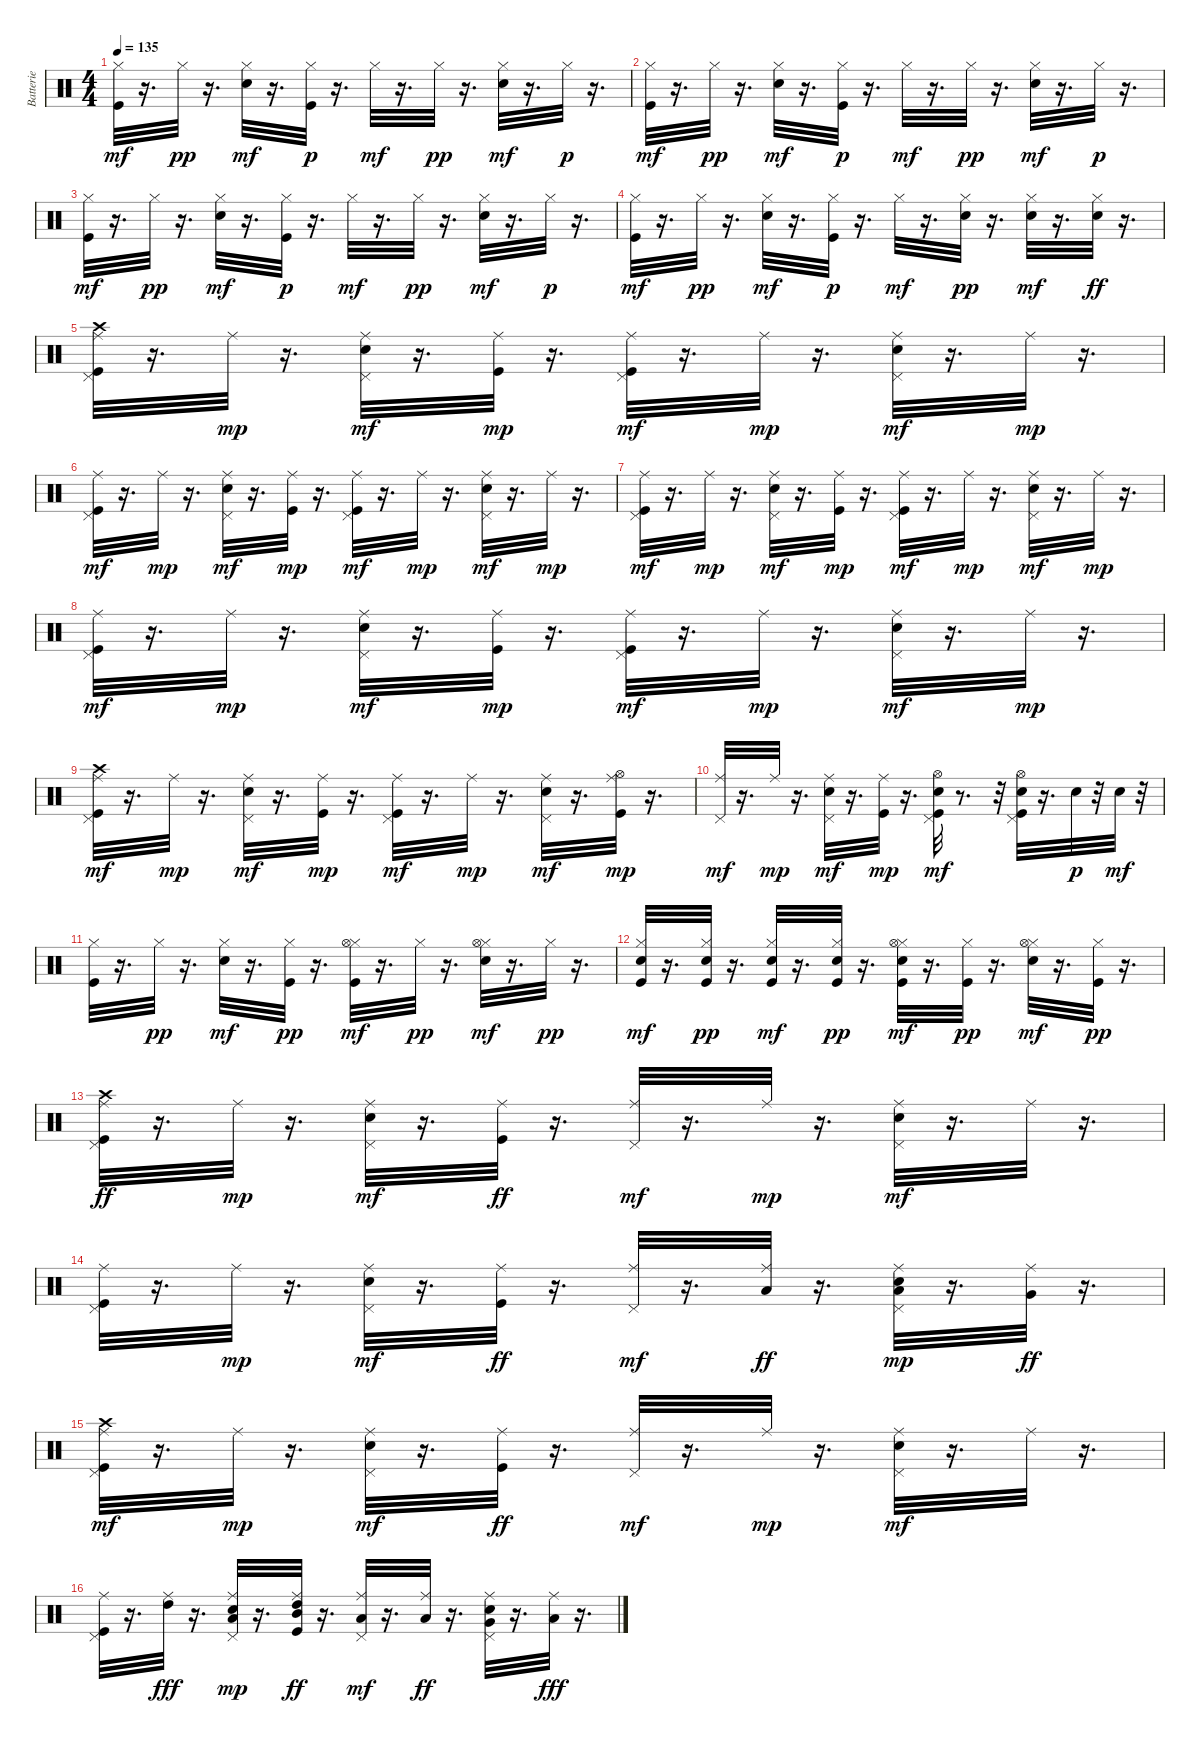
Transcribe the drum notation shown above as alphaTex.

\track ("Batterie" "Batterie") {instrument percussion}
\staff {score}
\articulation defaults
\ts (4 4)
\tempo 135
\clef neutral
\ks c
("Kick (hit)" "Hi-Hat (closed)").32{dy mf} r.16{d} "Hi-Hat (closed)".32{dy pp} r.16{d} ("Electric Snare (hit)" "Hi-Hat (closed)").32{dy mf} r.16{d} ("Kick (hit)" "Hi-Hat (closed)").32{dy p} r.16{d} "Hi-Hat (closed)".32{dy mf} r.16{d} "Hi-Hat (closed)".32{dy pp} r.16{d} ("Electric Snare (hit)" "Hi-Hat (closed)").32{dy mf} r.16{d} "Hi-Hat (closed)".32{dy p} r.16{d} |
("Kick (hit)" "Hi-Hat (closed)").32{dy mf} r.16{d} "Hi-Hat (closed)".32{dy pp} r.16{d} ("Electric Snare (hit)" "Hi-Hat (closed)").32{dy mf} r.16{d} ("Kick (hit)" "Hi-Hat (closed)").32{dy p} r.16{d} "Hi-Hat (closed)".32{dy mf} r.16{d} "Hi-Hat (closed)".32{dy pp} r.16{d} ("Electric Snare (hit)" "Hi-Hat (closed)").32{dy mf} r.16{d} "Hi-Hat (closed)".32{dy p} r.16{d} |
("Kick (hit)" "Hi-Hat (closed)").32{dy mf} r.16{d} "Hi-Hat (closed)".32{dy pp} r.16{d} ("Electric Snare (hit)" "Hi-Hat (closed)").32{dy mf} r.16{d} ("Kick (hit)" "Hi-Hat (closed)").32{dy p} r.16{d} "Hi-Hat (closed)".32{dy mf} r.16{d} "Hi-Hat (closed)".32{dy pp} r.16{d} ("Electric Snare (hit)" "Hi-Hat (closed)").32{dy mf} r.16{d} "Hi-Hat (closed)".32{dy p} r.16{d} |
("Kick (hit)" "Hi-Hat (closed)").32{dy mf} r.16{d} "Hi-Hat (closed)".32{dy pp} r.16{d} ("Electric Snare (hit)" "Hi-Hat (closed)").32{dy mf} r.16{d} ("Kick (hit)" "Hi-Hat (closed)").32{dy p} r.16{d} "Hi-Hat (closed)".32{dy mf} r.16{d} ("Hi-Hat (closed)" "Electric Snare (hit)").32{dy pp} r.16{d} ("Electric Snare (hit)" "Hi-Hat (closed)").32{dy mf} r.16{d} ("Hi-Hat (closed)" "Electric Snare (hit)").32{dy ff} r.16{d} |
("Kick (hit)" "Pedal Hi-Hat (hit)" "Ride (middle)" "Crash high (hit)").32 r.16{d} "Ride (middle)".32{dy mp} r.16{d} ("Electric Snare (hit)" "Pedal Hi-Hat (hit)" "Ride (middle)").32{dy mf} r.16{d} ("Kick (hit)" "Ride (middle)").32{dy mp} r.16{d} ("Kick (hit)" "Pedal Hi-Hat (hit)" "Ride (middle)").32{dy mf} r.16{d} "Ride (middle)".32{dy mp} r.16{d} ("Electric Snare (hit)" "Pedal Hi-Hat (hit)" "Ride (middle)").32{dy mf} r.16{d} "Ride (middle)".32{dy mp} r.16{d} |
("Kick (hit)" "Pedal Hi-Hat (hit)" "Ride (middle)").32{dy mf} r.16{d} "Ride (middle)".32{dy mp} r.16{d} ("Electric Snare (hit)" "Pedal Hi-Hat (hit)" "Ride (middle)").32{dy mf} r.16{d} ("Kick (hit)" "Ride (middle)").32{dy mp} r.16{d} ("Kick (hit)" "Pedal Hi-Hat (hit)" "Ride (middle)").32{dy mf} r.16{d} "Ride (middle)".32{dy mp} r.16{d} ("Electric Snare (hit)" "Pedal Hi-Hat (hit)" "Ride (middle)").32{dy mf} r.16{d} "Ride (middle)".32{dy mp} r.16{d} |
("Kick (hit)" "Pedal Hi-Hat (hit)" "Ride (middle)").32{dy mf} r.16{d} "Ride (middle)".32{dy mp} r.16{d} ("Electric Snare (hit)" "Pedal Hi-Hat (hit)" "Ride (middle)").32{dy mf} r.16{d} ("Kick (hit)" "Ride (middle)").32{dy mp} r.16{d} ("Kick (hit)" "Pedal Hi-Hat (hit)" "Ride (middle)").32{dy mf} r.16{d} "Ride (middle)".32{dy mp} r.16{d} ("Electric Snare (hit)" "Pedal Hi-Hat (hit)" "Ride (middle)").32{dy mf} r.16{d} "Ride (middle)".32{dy mp} r.16{d} |
("Kick (hit)" "Pedal Hi-Hat (hit)" "Ride (middle)").32{dy mf} r.16{d} "Ride (middle)".32{dy mp} r.16{d} ("Electric Snare (hit)" "Pedal Hi-Hat (hit)" "Ride (middle)").32{dy mf} r.16{d} ("Kick (hit)" "Ride (middle)").32{dy mp} r.16{d} ("Kick (hit)" "Pedal Hi-Hat (hit)" "Ride (middle)").32{dy mf} r.16{d} "Ride (middle)".32{dy mp} r.16{d} ("Electric Snare (hit)" "Pedal Hi-Hat (hit)" "Ride (middle)").32{dy mf} r.16{d} "Ride (middle)".32{dy mp} r.16{d} |
("Kick (hit)" "Pedal Hi-Hat (hit)" "Ride (middle)" "Crash high (hit)").32{dy mf} r.16{d} "Ride (middle)".32{dy mp} r.16{d} ("Electric Snare (hit)" "Pedal Hi-Hat (hit)" "Ride (middle)").32{dy mf} r.16{d} ("Kick (hit)" "Ride (middle)").32{dy mp} r.16{d} ("Kick (hit)" "Pedal Hi-Hat (hit)" "Ride (middle)").32{dy mf} r.16{d} "Ride (middle)".32{dy mp} r.16{d} ("Electric Snare (hit)" "Pedal Hi-Hat (hit)" "Ride (middle)").32{dy mf} r.16{d} ("Kick (hit)" "Hi-Hat (open)" "Ride (middle)").32{dy mp} r.16{d} |
("Pedal Hi-Hat (hit)" "Ride (middle)").32{dy mf} r.16{d} "Ride (middle)".32{dy mp} r.16{d} ("Electric Snare (hit)" "Pedal Hi-Hat (hit)" "Ride (middle)").32{dy mf} r.16{d} ("Kick (hit)" "Ride (middle)").32{dy mp} r.16{d} ("Kick (hit)" "Electric Snare (hit)" "Pedal Hi-Hat (hit)" "Hi-Hat (open)").32{dy mf} r.8{d} r.32 ("Kick (hit)" "Electric Snare (hit)" "Pedal Hi-Hat (hit)" "Hi-Hat (open)").32 r.16{d} "Electric Snare (hit)".32{dy p} r.32 "Electric Snare (hit)".32{dy mf} r.32 |
("Kick (hit)" "Hi-Hat (closed)").32 r.16{d} "Hi-Hat (closed)".32{dy pp} r.16{d} ("Electric Snare (hit)" "Hi-Hat (closed)").32{dy mf} r.16{d} ("Kick (hit)" "Hi-Hat (closed)").32{dy pp} r.16{d} ("Kick (hit)" "Hi-Hat (closed)" "Hi-Hat (open)").32{dy mf} r.16{d} "Hi-Hat (closed)".32{dy pp} r.16{d} ("Electric Snare (hit)" "Hi-Hat (closed)" "Hi-Hat (open)").32{dy mf} r.16{d} "Hi-Hat (closed)".32{dy pp} r.16{d} |
("Kick (hit)" "Electric Snare (hit)" "Hi-Hat (closed)").32{dy mf} r.16{d} ("Kick (hit)" "Electric Snare (hit)" "Hi-Hat (closed)").32{dy pp} r.16{d} ("Kick (hit)" "Electric Snare (hit)" "Hi-Hat (closed)").32{dy mf} r.16{d} ("Kick (hit)" "Electric Snare (hit)" "Hi-Hat (closed)").32{dy pp} r.16{d} ("Kick (hit)" "Electric Snare (hit)" "Hi-Hat (closed)" "Hi-Hat (open)").32{dy mf} r.16{d} ("Kick (hit)" "Hi-Hat (closed)").32{dy pp} r.16{d} ("Electric Snare (hit)" "Hi-Hat (closed)" "Hi-Hat (open)").32{dy mf} r.16{d} ("Kick (hit)" "Hi-Hat (closed)").32{dy pp} r.16{d} |
("Kick (hit)" "Pedal Hi-Hat (hit)" "Ride (middle)" "Crash high (hit)").32{dy ff} r.16{d} "Ride (middle)".32{dy mp} r.16{d} ("Electric Snare (hit)" "Pedal Hi-Hat (hit)" "Ride (middle)").32{dy mf} r.16{d} ("Kick (hit)" "Ride (middle)").32{dy ff} r.16{d} ("Pedal Hi-Hat (hit)" "Ride (middle)").32{dy mf} r.16{d} "Ride (middle)".32{dy mp} r.16{d} ("Electric Snare (hit)" "Pedal Hi-Hat (hit)" "Ride (middle)").32{dy mf} r.16{d} "Ride (middle)".32 r.16{d} |
("Kick (hit)" "Pedal Hi-Hat (hit)" "Ride (middle)").32 r.16{d} "Ride (middle)".32{dy mp} r.16{d} ("Electric Snare (hit)" "Pedal Hi-Hat (hit)" "Ride (middle)").32{dy mf} r.16{d} ("Kick (hit)" "Ride (middle)").32{dy ff} r.16{d} ("Pedal Hi-Hat (hit)" "Ride (middle)").32{dy mf} r.16{d} ("Ride (middle)" "Low Tom (hit)").32{dy ff} r.16{d} ("Electric Snare (hit)" "Pedal Hi-Hat (hit)" "Ride (middle)" "Low Tom (hit)").32{dy mp} r.16{d} ("Ride (middle)" "Very Low Tom (hit)").32{dy ff} r.16{d} |
("Kick (hit)" "Pedal Hi-Hat (hit)" "Ride (middle)" "Crash high (hit)").32{dy mf} r.16{d} "Ride (middle)".32{dy mp} r.16{d} ("Electric Snare (hit)" "Pedal Hi-Hat (hit)" "Ride (middle)").32{dy mf} r.16{d} ("Kick (hit)" "Ride (middle)").32{dy ff} r.16{d} ("Pedal Hi-Hat (hit)" "Ride (middle)").32{dy mf} r.16{d} "Ride (middle)".32{dy mp} r.16{d} ("Electric Snare (hit)" "Pedal Hi-Hat (hit)" "Ride (middle)").32{dy mf} r.16{d} "Ride (middle)".32 r.16{d} |
("Kick (hit)" "Pedal Hi-Hat (hit)" "Ride (middle)").32 r.16{d} ("Ride (middle)" "High Tom (hit)").32{dy fff} r.16{d} ("Electric Snare (hit)" "Pedal Hi-Hat (hit)" "Ride (middle)" "Low Tom (hit)").32{dy mp} r.16{d} ("Kick (hit)" "Ride (middle)" "Mid Tom (hit)" "High Tom (hit)").32{dy ff} r.16{d} ("Pedal Hi-Hat (hit)" "Ride (middle)" "Low Tom (hit)").32{dy mf} r.16{d} ("Ride (middle)" "Low Tom (hit)").32{dy ff} r.16{d} ("Electric Snare (hit)" "Pedal Hi-Hat (hit)" "Ride (middle)" "Very Low Tom (hit)").32 r.16{d} ("Ride (middle)" "Low Floor Tom (hit)").32{dy fff} r.16{d}
